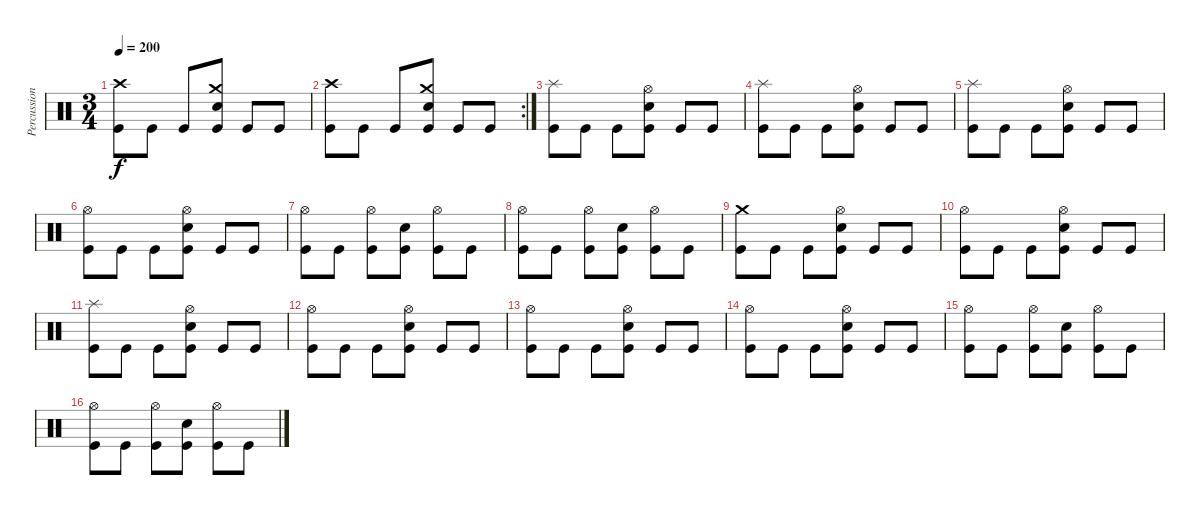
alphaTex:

\track ("Percussion" "Percussion") {instrument percussion}
\staff {score}
\articulation defaults
\ts (3 4)
\tempo 200
\clef neutral
\ks c
("Crash high (hit)" "Kick (hit)").8{dy f} "Kick (hit)".8 "Kick (hit)".8 ("Crash medium (hit)" "Snare (hit) 2" "Kick (hit)").8 "Kick (hit)".8 "Kick (hit)".8 |
\rc 2
("Crash high (hit)" "Kick (hit)").8 "Kick (hit)".8 "Kick (hit)".8 ("Crash medium (hit)" "Snare (hit) 2" "Kick (hit)").8 "Kick (hit)".8 "Kick (hit)".8 |
("Splash (hit)" "Kick (hit)").8 "Kick (hit)".8 "Kick (hit)".8 ("Hi-Hat (open)" "Snare (hit) 2" "Kick (hit)").8 "Kick (hit)".8 "Kick (hit)".8 |
("Splash (hit)" "Kick (hit)").8 "Kick (hit)".8 "Kick (hit)".8 ("Hi-Hat (open)" "Snare (hit) 2" "Kick (hit)").8 "Kick (hit)".8 "Kick (hit)".8 |
("Splash (hit)" "Kick (hit)").8 "Kick (hit)".8 "Kick (hit)".8 ("Hi-Hat (open)" "Snare (hit) 2" "Kick (hit)").8 "Kick (hit)".8 "Kick (hit)".8 |
("Hi-Hat (open)" "Kick (hit)").8 "Kick (hit)".8 "Kick (hit)".8 ("Hi-Hat (open)" "Snare (hit) 2" "Kick (hit)").8 "Kick (hit)".8 "Kick (hit)".8 |
("Hi-Hat (open)" "Kick (hit)").8 "Kick (hit)".8 ("Hi-Hat (open)" "Kick (hit)").8 ("Snare (hit) 2" "Kick (hit)").8 ("Hi-Hat (open)" "Kick (hit)").8 "Kick (hit)".8 |
("Hi-Hat (open)" "Kick (hit)").8 "Kick (hit)".8 ("Hi-Hat (open)" "Kick (hit)").8 ("Snare (hit) 2" "Kick (hit)").8 ("Hi-Hat (open)" "Kick (hit)").8 "Kick (hit)".8 |
("Crash medium (hit)" "Kick (hit)").8 "Kick (hit)".8 "Kick (hit)".8 ("Hi-Hat (open)" "Snare (hit) 2" "Kick (hit)").8 "Kick (hit)".8 "Kick (hit)".8 |
("Hi-Hat (open)" "Kick (hit)").8 "Kick (hit)".8 "Kick (hit)".8 ("Hi-Hat (open)" "Snare (hit) 2" "Kick (hit)").8 "Kick (hit)".8 "Kick (hit)".8 |
("Splash (hit)" "Kick (hit)").8 "Kick (hit)".8 "Kick (hit)".8 ("Hi-Hat (open)" "Snare (hit) 2" "Kick (hit)").8 "Kick (hit)".8 "Kick (hit)".8 |
("Hi-Hat (open)" "Kick (hit)").8 "Kick (hit)".8 "Kick (hit)".8 ("Hi-Hat (open)" "Snare (hit) 2" "Kick (hit)").8 "Kick (hit)".8 "Kick (hit)".8 |
("Hi-Hat (open)" "Kick (hit)").8 "Kick (hit)".8 "Kick (hit)".8 ("Hi-Hat (open)" "Snare (hit) 2" "Kick (hit)").8 "Kick (hit)".8 "Kick (hit)".8 |
("Hi-Hat (open)" "Kick (hit)").8 "Kick (hit)".8 "Kick (hit)".8 ("Hi-Hat (open)" "Snare (hit) 2" "Kick (hit)").8 "Kick (hit)".8 "Kick (hit)".8 |
("Hi-Hat (open)" "Kick (hit)").8 "Kick (hit)".8 ("Hi-Hat (open)" "Kick (hit)").8 ("Snare (hit) 2" "Kick (hit)").8 ("Hi-Hat (open)" "Kick (hit)").8 "Kick (hit)".8 |
("Hi-Hat (open)" "Kick (hit)").8 "Kick (hit)".8 ("Hi-Hat (open)" "Kick (hit)").8 ("Snare (hit) 2" "Kick (hit)").8 ("Hi-Hat (open)" "Kick (hit)").8 "Kick (hit)".8
